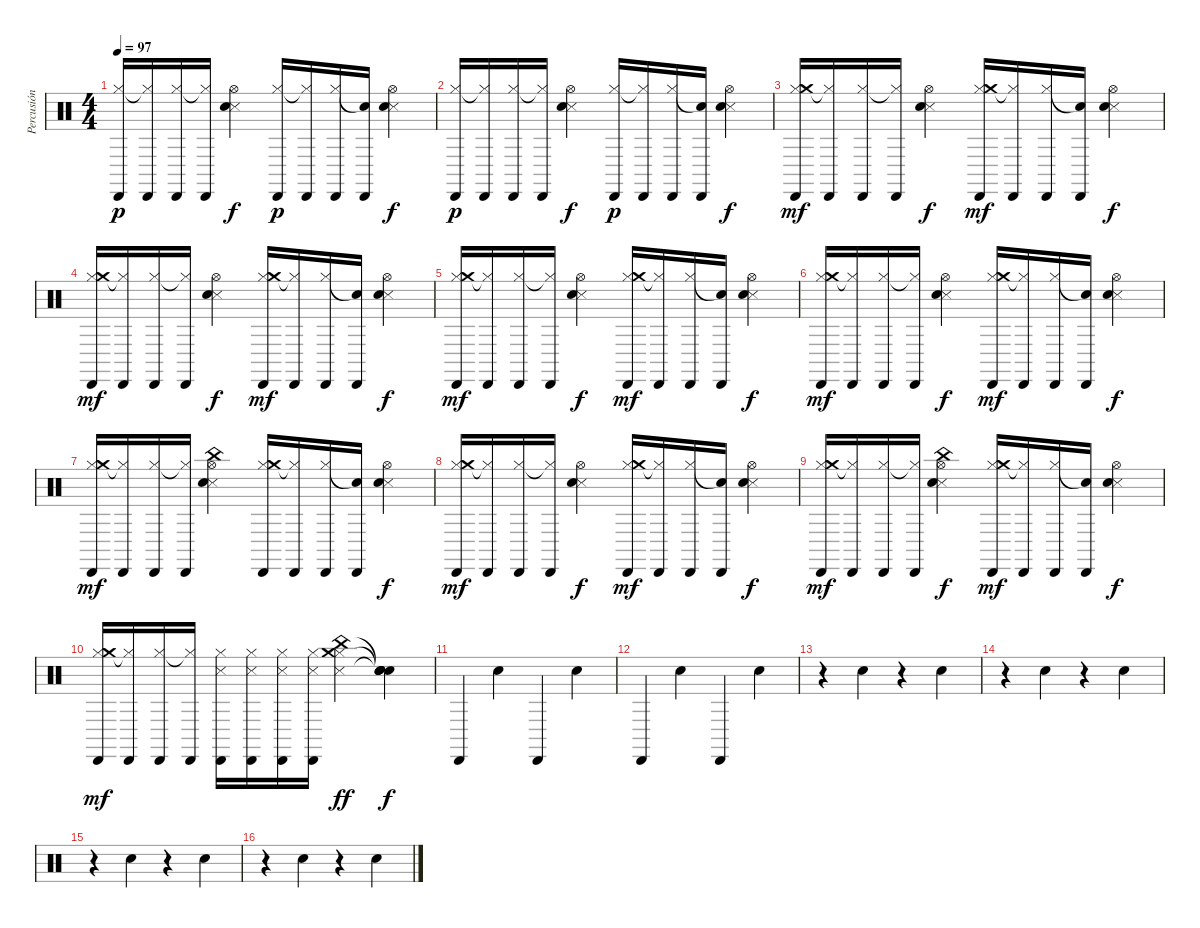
\track ("Percusión" "Percusión") {instrument percussion}
\staff {score}
\articulation defaults
\ts (4 4)
\tempo 97
\clef neutral
\ks c
("Hi-Hat (closed)" "Cabasa (hit)").16{dy p} ("Hi-Hat (closed)"{t} "Cabasa (hit)").16 ("Hi-Hat (closed)" "Cabasa (hit)").16 ("Hi-Hat (closed)"{t} "Cabasa (hit)").16 ("Hi-Hat (open)" "Snare (side stick) 3" "Electric Snare (hit)").4{dy f} ("Hi-Hat (closed)" "Cabasa (hit)").16{dy p} ("Hi-Hat (closed)"{t} "Cabasa (hit)").16 ("Hi-Hat (closed)" "Cabasa (hit)").16 ("Snare (hit)"{t} "Cabasa (hit)").16 ("Hi-Hat (open)" "Snare (side stick) 3" "Electric Snare (hit)").4{dy f} |
("Hi-Hat (closed)" "Cabasa (hit)").16{dy p} ("Hi-Hat (closed)"{t} "Cabasa (hit)").16 ("Hi-Hat (closed)" "Cabasa (hit)").16 ("Hi-Hat (closed)"{t} "Cabasa (hit)").16 ("Hi-Hat (open)" "Snare (side stick) 3" "Electric Snare (hit)").4{dy f} ("Hi-Hat (closed)" "Cabasa (hit)").16{dy p} ("Hi-Hat (closed)"{t} "Cabasa (hit)").16 ("Hi-Hat (closed)" "Cabasa (hit)").16 ("Snare (hit)"{t} "Cabasa (hit)").16 ("Hi-Hat (open)" "Snare (side stick) 3" "Electric Snare (hit)").4{dy f} |
("Hi-Hat (closed)" "Cabasa (hit)" "Crash medium (hit)").16{dy mf} ("Hi-Hat (closed)"{t} "Cabasa (hit)").16 ("Hi-Hat (closed)" "Cabasa (hit)").16 ("Hi-Hat (closed)"{t} "Cabasa (hit)").16 ("Hi-Hat (open)" "Snare (side stick) 3" "Electric Snare (hit)").4{dy f} ("Hi-Hat (closed)" "Cabasa (hit)" "Crash medium (hit)").16{dy mf} ("Hi-Hat (closed)"{t} "Cabasa (hit)").16 ("Hi-Hat (closed)" "Cabasa (hit)").16 ("Snare (hit)"{t} "Cabasa (hit)").16 ("Hi-Hat (open)" "Snare (side stick) 3" "Electric Snare (hit)").4{dy f} |
("Hi-Hat (closed)" "Cabasa (hit)" "Crash medium (hit)").16{dy mf} ("Hi-Hat (closed)"{t} "Cabasa (hit)").16 ("Hi-Hat (closed)" "Cabasa (hit)").16 ("Hi-Hat (closed)"{t} "Cabasa (hit)").16 ("Hi-Hat (open)" "Snare (side stick) 3" "Electric Snare (hit)").4{dy f} ("Hi-Hat (closed)" "Cabasa (hit)" "Crash medium (hit)").16{dy mf} ("Hi-Hat (closed)"{t} "Cabasa (hit)").16 ("Hi-Hat (closed)" "Cabasa (hit)").16 ("Snare (hit)"{t} "Cabasa (hit)").16 ("Hi-Hat (open)" "Snare (side stick) 3" "Electric Snare (hit)").4{dy f} |
("Hi-Hat (closed)" "Cabasa (hit)" "Crash medium (hit)").16{dy mf} ("Hi-Hat (closed)"{t} "Cabasa (hit)").16 ("Hi-Hat (closed)" "Cabasa (hit)").16 ("Hi-Hat (closed)"{t} "Cabasa (hit)").16 ("Hi-Hat (open)" "Snare (side stick) 3" "Electric Snare (hit)").4{dy f} ("Hi-Hat (closed)" "Cabasa (hit)" "Crash medium (hit)").16{dy mf} ("Hi-Hat (closed)"{t} "Cabasa (hit)").16 ("Hi-Hat (closed)" "Cabasa (hit)").16 ("Snare (hit)"{t} "Cabasa (hit)").16 ("Hi-Hat (open)" "Snare (side stick) 3" "Electric Snare (hit)").4{dy f} |
("Hi-Hat (closed)" "Cabasa (hit)" "Crash medium (hit)").16{dy mf} ("Hi-Hat (closed)"{t} "Cabasa (hit)").16 ("Hi-Hat (closed)" "Cabasa (hit)").16 ("Hi-Hat (closed)"{t} "Cabasa (hit)").16 ("Hi-Hat (open)" "Snare (side stick) 3" "Electric Snare (hit)").4{dy f} ("Hi-Hat (closed)" "Cabasa (hit)" "Crash medium (hit)").16{dy mf} ("Hi-Hat (closed)"{t} "Cabasa (hit)").16 ("Hi-Hat (closed)" "Cabasa (hit)").16 ("Snare (hit)"{t} "Cabasa (hit)").16 ("Hi-Hat (open)" "Snare (side stick) 3" "Electric Snare (hit)").4{dy f} |
("Hi-Hat (closed)" "Cabasa (hit)" "Crash medium (hit)").16{dy mf} ("Hi-Hat (closed)"{t} "Cabasa (hit)").16 ("Hi-Hat (closed)" "Cabasa (hit)").16 ("Hi-Hat (closed)"{t} "Cabasa (hit)").16 ("Hi-Hat (open)" "Snare (side stick) 3" "Electric Snare (hit)" "China (hit)").4 ("Hi-Hat (closed)" "Cabasa (hit)" "Crash medium (hit)").16 ("Hi-Hat (closed)"{t} "Cabasa (hit)").16 ("Hi-Hat (closed)" "Cabasa (hit)").16 ("Snare (hit)"{t} "Cabasa (hit)").16 ("Hi-Hat (open)" "Snare (side stick) 3" "Electric Snare (hit)").4{dy f} |
("Hi-Hat (closed)" "Cabasa (hit)" "Crash medium (hit)").16{dy mf} ("Hi-Hat (closed)"{t} "Cabasa (hit)").16 ("Hi-Hat (closed)" "Cabasa (hit)").16 ("Hi-Hat (closed)"{t} "Cabasa (hit)").16 ("Hi-Hat (open)" "Snare (side stick) 3" "Electric Snare (hit)").4{dy f} ("Hi-Hat (closed)" "Cabasa (hit)" "Crash medium (hit)").16{dy mf} ("Hi-Hat (closed)"{t} "Cabasa (hit)").16 ("Hi-Hat (closed)" "Cabasa (hit)").16 ("Snare (hit)"{t} "Cabasa (hit)").16 ("Hi-Hat (open)" "Snare (side stick) 3" "Electric Snare (hit)").4{dy f} |
("Hi-Hat (closed)" "Cabasa (hit)" "Crash medium (hit)").16{dy mf} ("Hi-Hat (closed)"{t} "Cabasa (hit)").16 ("Hi-Hat (closed)" "Cabasa (hit)").16 ("Hi-Hat (closed)"{t} "Cabasa (hit)").16 ("Hi-Hat (open)" "Snare (side stick) 3" "Electric Snare (hit)" "China (hit)").4{dy f} ("Hi-Hat (closed)" "Cabasa (hit)" "Crash medium (hit)").16{dy mf} ("Hi-Hat (closed)"{t} "Cabasa (hit)").16 ("Hi-Hat (closed)" "Cabasa (hit)").16 ("Snare (hit)"{t} "Cabasa (hit)").16 ("Hi-Hat (open)" "Snare (side stick) 3" "Electric Snare (hit)").4{dy f} |
("Hi-Hat (closed)" "Cabasa (hit)" "Crash medium (hit)").16{dy mf} ("Hi-Hat (closed)"{t} "Cabasa (hit)").16 ("Hi-Hat (closed)" "Cabasa (hit)").16 ("Hi-Hat (closed)"{t} "Cabasa (hit)").16 ("Hi-Hat (closed)" "Snare (side stick) 3" "Cabasa (hit)").16 ("Hi-Hat (closed)" "Snare (side stick) 3" "Cabasa (hit)").16 ("Hi-Hat (closed)" "Snare (side stick) 3" "Cabasa (hit)").16 ("Hi-Hat (closed)" "Snare (side stick) 3" "Cabasa (hit)").16 ("Hi-Hat (closed)" "Snare (side stick) 3" "Crash medium (hit)" "China (hit)").4{dy ff} ("Snare (hit)"{t} "Snare (hit)"{t} "Electric Snare (hit)" "Snare (hit)"{t}).4{dy f} |
"Cabasa (hit)".4 "Electric Snare (hit)".4 "Cabasa (hit)".4 "Electric Snare (hit)".4 |
"Cabasa (hit)".4 "Electric Snare (hit)".4 "Cabasa (hit)".4 "Electric Snare (hit)".4 |
r.4 "Electric Snare (hit)".4 r.4 "Electric Snare (hit)".4 |
r.4 "Electric Snare (hit)".4 r.4 "Electric Snare (hit)".4 |
r.4 "Electric Snare (hit)".4 r.4 "Electric Snare (hit)".4 |
r.4 "Electric Snare (hit)".4 r.4 "Electric Snare (hit)".4
